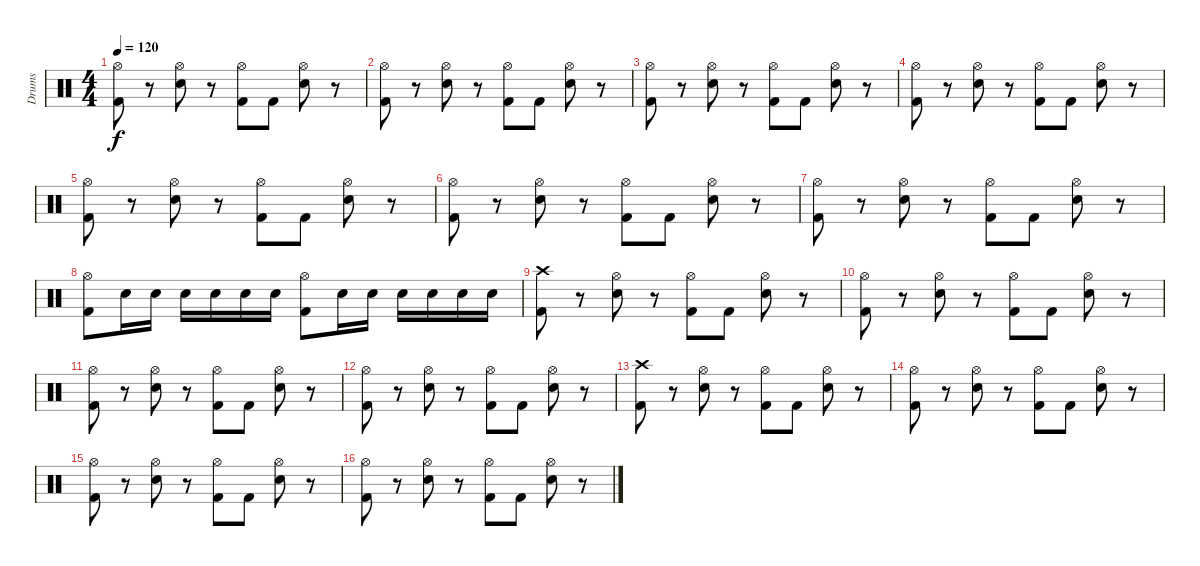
\track ("Drums" "Drums") {instrument percussion}
\staff {score}
\articulation defaults
\ts (4 4)
\tempo 120
\clef neutral
\ks c
("Hi-Hat (open)" "Kick (hit) 2").8{dy f} r.8 ("Snare (hit) 2" "Hi-Hat (open)").8 r.8 ("Hi-Hat (open)" "Kick (hit) 2").8 "Kick (hit) 2".8 ("Snare (hit) 2" "Hi-Hat (open)").8 r.8 |
("Hi-Hat (open)" "Kick (hit) 2").8 r.8 ("Snare (hit) 2" "Hi-Hat (open)").8 r.8 ("Hi-Hat (open)" "Kick (hit) 2").8 "Kick (hit) 2".8 ("Snare (hit) 2" "Hi-Hat (open)").8 r.8 |
("Hi-Hat (open)" "Kick (hit) 2").8 r.8 ("Snare (hit) 2" "Hi-Hat (open)").8 r.8 ("Hi-Hat (open)" "Kick (hit) 2").8 "Kick (hit) 2".8 ("Snare (hit) 2" "Hi-Hat (open)").8 r.8 |
("Hi-Hat (open)" "Kick (hit) 2").8 r.8 ("Snare (hit) 2" "Hi-Hat (open)").8 r.8 ("Hi-Hat (open)" "Kick (hit) 2").8 "Kick (hit) 2".8 ("Snare (hit) 2" "Hi-Hat (open)").8 r.8 |
("Hi-Hat (open)" "Kick (hit) 2").8 r.8 ("Snare (hit) 2" "Hi-Hat (open)").8 r.8 ("Hi-Hat (open)" "Kick (hit) 2").8 "Kick (hit) 2".8 ("Snare (hit) 2" "Hi-Hat (open)").8 r.8 |
("Hi-Hat (open)" "Kick (hit) 2").8 r.8 ("Snare (hit) 2" "Hi-Hat (open)").8 r.8 ("Hi-Hat (open)" "Kick (hit) 2").8 "Kick (hit) 2".8 ("Snare (hit) 2" "Hi-Hat (open)").8 r.8 |
("Hi-Hat (open)" "Kick (hit) 2").8 r.8 ("Snare (hit) 2" "Hi-Hat (open)").8 r.8 ("Hi-Hat (open)" "Kick (hit) 2").8 "Kick (hit) 2".8 ("Snare (hit) 2" "Hi-Hat (open)").8 r.8 |
("Hi-Hat (open)" "Kick (hit) 2").8 "Snare (hit) 2".16 "Snare (hit) 2".16 "Snare (hit) 2".16 "Snare (hit) 2".16 "Snare (hit) 2".16 "Snare (hit) 2".16 ("Hi-Hat (open)" "Kick (hit) 2").8 "Snare (hit) 2".16 "Snare (hit) 2".16 "Snare (hit) 2".16 "Snare (hit) 2".16 "Snare (hit) 2".16 "Snare (hit) 2".16 |
("Crash high (hit)" "Kick (hit) 2").8 r.8 ("Snare (hit) 2" "Hi-Hat (open)").8 r.8 ("Hi-Hat (open)" "Kick (hit) 2").8 "Kick (hit) 2".8 ("Snare (hit) 2" "Hi-Hat (open)").8 r.8 |
("Hi-Hat (open)" "Kick (hit) 2").8 r.8 ("Snare (hit) 2" "Hi-Hat (open)").8 r.8 ("Hi-Hat (open)" "Kick (hit) 2").8 "Kick (hit) 2".8 ("Snare (hit) 2" "Hi-Hat (open)").8 r.8 |
("Hi-Hat (open)" "Kick (hit) 2").8 r.8 ("Snare (hit) 2" "Hi-Hat (open)").8 r.8 ("Hi-Hat (open)" "Kick (hit) 2").8 "Kick (hit) 2".8 ("Snare (hit) 2" "Hi-Hat (open)").8 r.8 |
("Hi-Hat (open)" "Kick (hit) 2").8 r.8 ("Snare (hit) 2" "Hi-Hat (open)").8 r.8 ("Hi-Hat (open)" "Kick (hit) 2").8 "Kick (hit) 2".8 ("Snare (hit) 2" "Hi-Hat (open)").8 r.8 |
("Crash high (hit)" "Kick (hit) 2").8 r.8 ("Snare (hit) 2" "Hi-Hat (open)").8 r.8 ("Hi-Hat (open)" "Kick (hit) 2").8 "Kick (hit) 2".8 ("Snare (hit) 2" "Hi-Hat (open)").8 r.8 |
("Hi-Hat (open)" "Kick (hit) 2").8 r.8 ("Snare (hit) 2" "Hi-Hat (open)").8 r.8 ("Hi-Hat (open)" "Kick (hit) 2").8 "Kick (hit) 2".8 ("Snare (hit) 2" "Hi-Hat (open)").8 r.8 |
("Hi-Hat (open)" "Kick (hit) 2").8 r.8 ("Snare (hit) 2" "Hi-Hat (open)").8 r.8 ("Hi-Hat (open)" "Kick (hit) 2").8 "Kick (hit) 2".8 ("Snare (hit) 2" "Hi-Hat (open)").8 r.8 |
("Hi-Hat (open)" "Kick (hit) 2").8 r.8 ("Snare (hit) 2" "Hi-Hat (open)").8 r.8 ("Hi-Hat (open)" "Kick (hit) 2").8 "Kick (hit) 2".8 ("Snare (hit) 2" "Hi-Hat (open)").8 r.8
